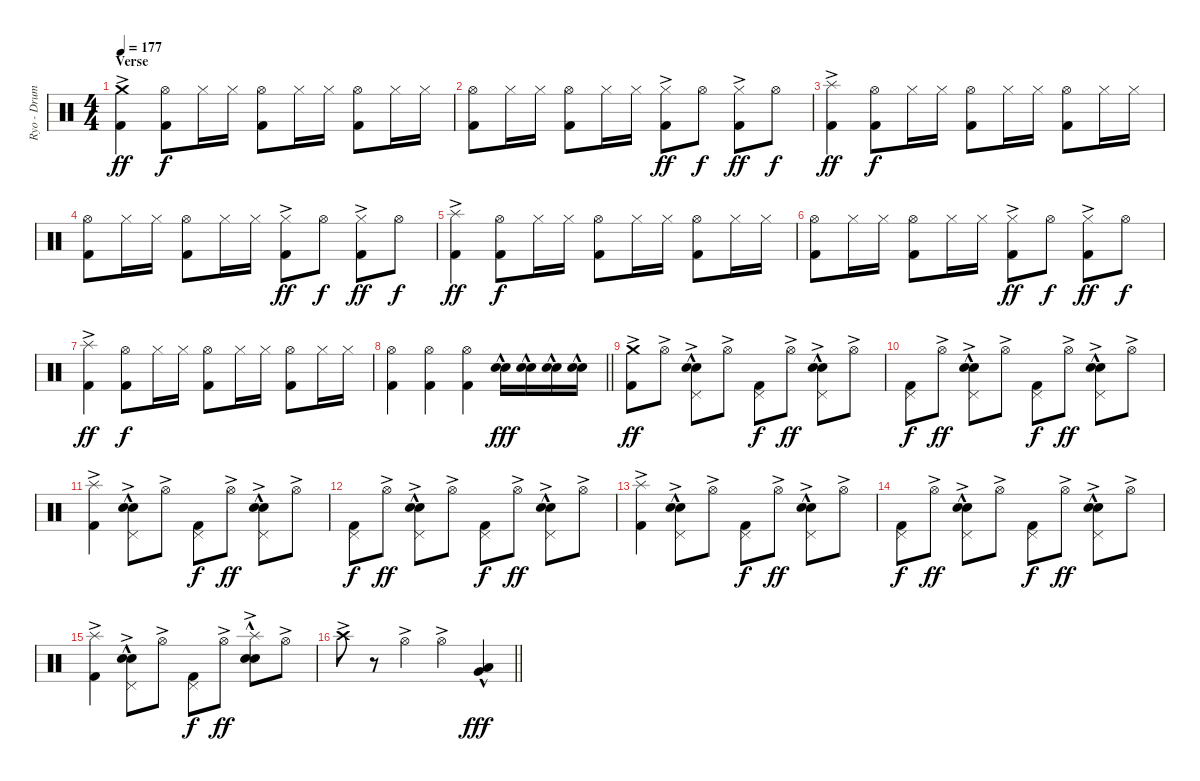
\track ("Ryo - Drums" "Ryo - Drum") {instrument percussion}
\staff {score}
\articulation defaults
\ts (4 4)
\section ("" "Verse")
\tempo 177
\clef neutral
\ks c
("Crash medium (hit)"{ac} "Kick (hit) 2").4{dy ff} ("Hi-Hat (open)" "Kick (hit) 2").8{dy f} "Hi-Hat (closed)".16 "Hi-Hat (closed)".16 ("Hi-Hat (open)" "Kick (hit) 2").8 "Hi-Hat (closed)".16 "Hi-Hat (closed)".16 ("Hi-Hat (open)" "Kick (hit) 2").8 "Hi-Hat (closed)".16 "Hi-Hat (closed)".16 |
("Hi-Hat (open)" "Kick (hit) 2").8 "Hi-Hat (closed)".16 "Hi-Hat (closed)".16 ("Hi-Hat (open)" "Kick (hit) 2").8 "Hi-Hat (closed)".16 "Hi-Hat (closed)".16 ("Hi-Hat (closed)"{ac} "Kick (hit) 2").8{dy ff} "Hi-Hat (open)".8{dy f} ("Hi-Hat (closed)"{ac} "Kick (hit) 2").8{dy ff} "Hi-Hat (open)".8{dy f} |
("Splash (hit)"{ac} "Kick (hit) 2").4{dy ff} ("Hi-Hat (open)" "Kick (hit) 2").8{dy f} "Hi-Hat (closed)".16 "Hi-Hat (closed)".16 ("Hi-Hat (open)" "Kick (hit) 2").8 "Hi-Hat (closed)".16 "Hi-Hat (closed)".16 ("Hi-Hat (open)" "Kick (hit) 2").8 "Hi-Hat (closed)".16 "Hi-Hat (closed)".16 |
("Hi-Hat (open)" "Kick (hit) 2").8 "Hi-Hat (closed)".16 "Hi-Hat (closed)".16 ("Hi-Hat (open)" "Kick (hit) 2").8 "Hi-Hat (closed)".16 "Hi-Hat (closed)".16 ("Hi-Hat (closed)"{ac} "Kick (hit) 2").8{dy ff} "Hi-Hat (open)".8{dy f} ("Hi-Hat (closed)"{ac} "Kick (hit) 2").8{dy ff} "Hi-Hat (open)".8{dy f} |
("Splash (hit)"{ac} "Kick (hit) 2").4{dy ff} ("Hi-Hat (open)" "Kick (hit) 2").8{dy f} "Hi-Hat (closed)".16 "Hi-Hat (closed)".16 ("Hi-Hat (open)" "Kick (hit) 2").8 "Hi-Hat (closed)".16 "Hi-Hat (closed)".16 ("Hi-Hat (open)" "Kick (hit) 2").8 "Hi-Hat (closed)".16 "Hi-Hat (closed)".16 |
("Hi-Hat (open)" "Kick (hit) 2").8 "Hi-Hat (closed)".16 "Hi-Hat (closed)".16 ("Hi-Hat (open)" "Kick (hit) 2").8 "Hi-Hat (closed)".16 "Hi-Hat (closed)".16 ("Hi-Hat (closed)"{ac} "Kick (hit) 2").8{dy ff} "Hi-Hat (open)".8{dy f} ("Hi-Hat (closed)"{ac} "Kick (hit) 2").8{dy ff} "Hi-Hat (open)".8{dy f} |
("Splash (hit)"{ac} "Kick (hit) 2").4{dy ff} ("Hi-Hat (open)" "Kick (hit) 2").8{dy f} "Hi-Hat (closed)".16 "Hi-Hat (closed)".16 ("Hi-Hat (open)" "Kick (hit) 2").8 "Hi-Hat (closed)".16 "Hi-Hat (closed)".16 ("Hi-Hat (open)" "Kick (hit) 2").8 "Hi-Hat (closed)".16 "Hi-Hat (closed)".16 |
\barLineRight lightlight
("Hi-Hat (open)" "Kick (hit) 2").4 ("Hi-Hat (open)" "Kick (hit) 2").4 ("Hi-Hat (open)" "Kick (hit) 2").4 ("Electric Snare (hit)"{hac} "Snare (hit) 2"{hac}).16{dy fff} ("Electric Snare (hit)"{hac} "Snare (hit) 2"{hac}).16 ("Electric Snare (hit)"{hac} "Snare (hit) 2"{hac}).16 ("Electric Snare (hit)"{hac} "Snare (hit) 2"{hac}).16 |
\section ("" "")
("Crash medium (hit)"{ac} "Kick (hit) 2").8{dy ff} "Hi-Hat (open)"{ac}.8 ("Pedal Hi-Hat (hit)" "Electric Snare (hit)"{hac} "Snare (hit) 2"{ac}).8 "Hi-Hat (open)"{ac}.8 ("Pedal Hi-Hat (hit)" "Kick (hit) 2").8{dy f} "Hi-Hat (open)"{ac}.8{dy ff} ("Pedal Hi-Hat (hit)" "Electric Snare (hit)"{hac} "Snare (hit) 2"{ac}).8 "Hi-Hat (open)"{ac}.8 |
("Pedal Hi-Hat (hit)" "Kick (hit) 2").8{dy f} "Hi-Hat (open)"{ac}.8{dy ff} ("Pedal Hi-Hat (hit)" "Electric Snare (hit)"{hac} "Snare (hit) 2"{ac}).8 "Hi-Hat (open)"{ac}.8 ("Pedal Hi-Hat (hit)" "Kick (hit) 2").8{dy f} "Hi-Hat (open)"{ac}.8{dy ff} ("Pedal Hi-Hat (hit)" "Electric Snare (hit)"{hac} "Snare (hit) 2"{ac}).8 "Hi-Hat (open)"{ac}.8 |
("Splash (hit)"{ac} "Kick (hit) 2").4 ("Pedal Hi-Hat (hit)" "Electric Snare (hit)"{hac} "Snare (hit) 2"{ac}).8 "Hi-Hat (open)"{ac}.8 ("Pedal Hi-Hat (hit)" "Kick (hit) 2").8{dy f} "Hi-Hat (open)"{ac}.8{dy ff} ("Pedal Hi-Hat (hit)" "Electric Snare (hit)"{hac} "Snare (hit) 2"{ac}).8 "Hi-Hat (open)"{ac}.8 |
("Pedal Hi-Hat (hit)" "Kick (hit) 2").8{dy f} "Hi-Hat (open)"{ac}.8{dy ff} ("Pedal Hi-Hat (hit)" "Electric Snare (hit)"{hac} "Snare (hit) 2"{ac}).8 "Hi-Hat (open)"{ac}.8 ("Pedal Hi-Hat (hit)" "Kick (hit) 2").8{dy f} "Hi-Hat (open)"{ac}.8{dy ff} ("Pedal Hi-Hat (hit)" "Electric Snare (hit)"{hac} "Snare (hit) 2"{ac}).8 "Hi-Hat (open)"{ac}.8 |
("Splash (hit)"{ac} "Kick (hit) 2").4 ("Pedal Hi-Hat (hit)" "Electric Snare (hit)"{hac} "Snare (hit) 2"{ac}).8 "Hi-Hat (open)"{ac}.8 ("Pedal Hi-Hat (hit)" "Kick (hit) 2").8{dy f} "Hi-Hat (open)"{ac}.8{dy ff} ("Pedal Hi-Hat (hit)" "Electric Snare (hit)"{hac} "Snare (hit) 2"{ac}).8 "Hi-Hat (open)"{ac}.8 |
("Pedal Hi-Hat (hit)" "Kick (hit) 2").8{dy f} "Hi-Hat (open)"{ac}.8{dy ff} ("Pedal Hi-Hat (hit)" "Electric Snare (hit)"{hac} "Snare (hit) 2"{ac}).8 "Hi-Hat (open)"{ac}.8 ("Pedal Hi-Hat (hit)" "Kick (hit) 2").8{dy f} "Hi-Hat (open)"{ac}.8{dy ff} ("Pedal Hi-Hat (hit)" "Electric Snare (hit)"{hac} "Snare (hit) 2"{ac}).8 "Hi-Hat (open)"{ac}.8 |
("Splash (hit)"{ac} "Kick (hit) 2").4 ("Pedal Hi-Hat (hit)" "Electric Snare (hit)"{hac} "Snare (hit) 2"{ac}).8 "Hi-Hat (open)"{ac}.8 ("Pedal Hi-Hat (hit)" "Kick (hit) 2").8{dy f} "Hi-Hat (open)"{ac}.8{dy ff} ("Splash (hit)" "Electric Snare (hit)"{hac} "Snare (hit) 2"{ac}).8 "Hi-Hat (open)"{ac}.8 |
\barLineRight lightlight "Crash high (hit)"{ac}.8
r.8 "Hi-Hat (open)"{ac}.4 "Hi-Hat (open)"{ac}.4 ("Low Tom (hit)"{hac} "Very Low Tom (hit)"{hac}).4{dy fff}
